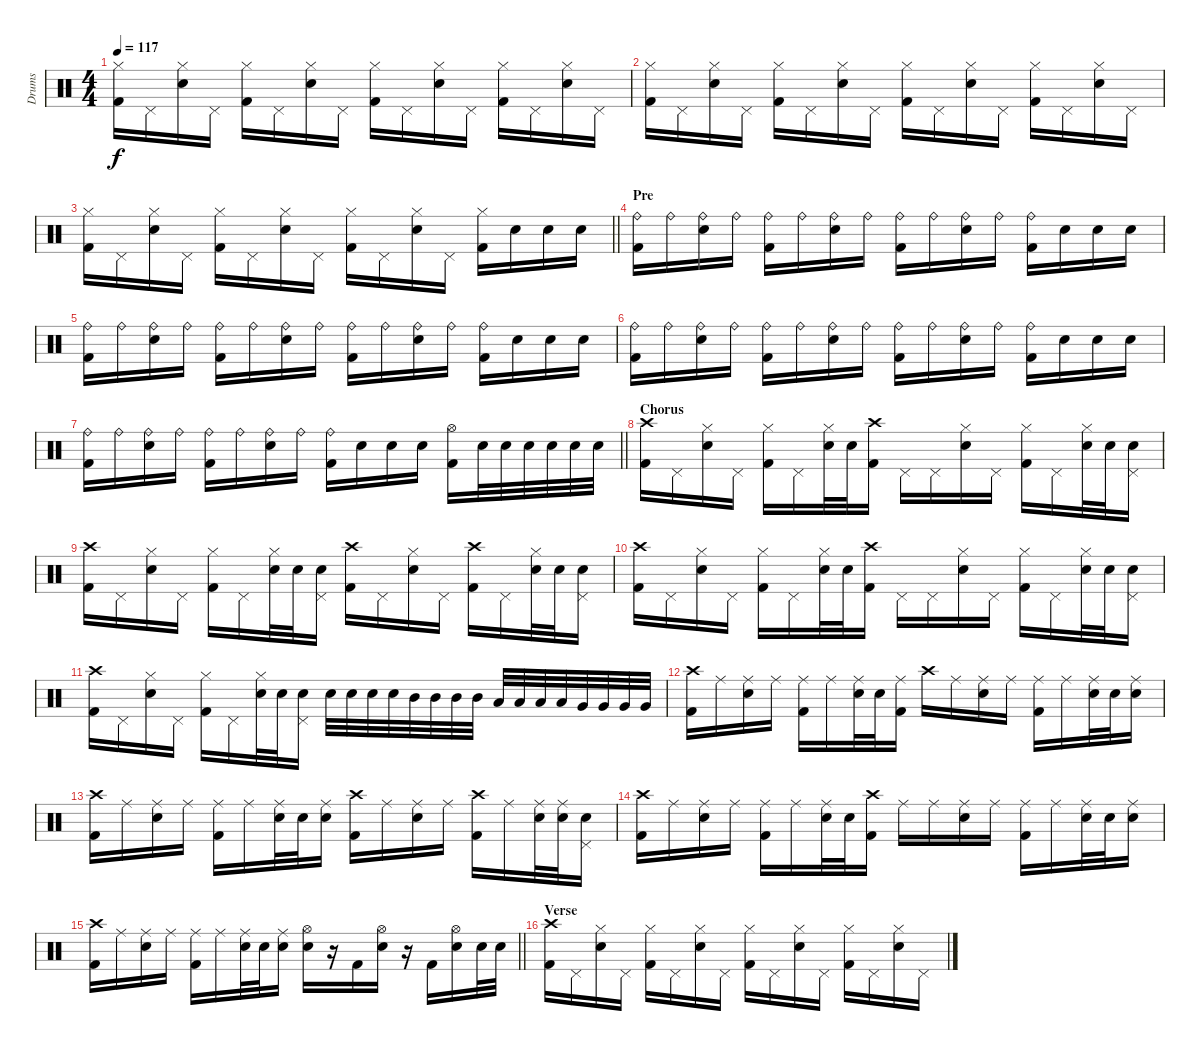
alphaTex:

\track ("Drums" "Drums") {instrument percussion}
\staff {score}
\articulation defaults
\ts (4 4)
\tempo 117
\clef neutral
\ks c
("Hi-Hat (closed)" "Kick (hit) 2").16{dy f} "Pedal Hi-Hat (hit)".16 ("Hi-Hat (closed)" "Electric Snare (hit)").16 "Pedal Hi-Hat (hit)".16 ("Hi-Hat (closed)" "Kick (hit) 2").16 "Pedal Hi-Hat (hit)".16 ("Hi-Hat (closed)" "Electric Snare (hit)").16 "Pedal Hi-Hat (hit)".16 ("Hi-Hat (closed)" "Kick (hit) 2").16 "Pedal Hi-Hat (hit)".16 ("Hi-Hat (closed)" "Electric Snare (hit)").16 "Pedal Hi-Hat (hit)".16 ("Hi-Hat (closed)" "Kick (hit) 2").16 "Pedal Hi-Hat (hit)".16 ("Hi-Hat (closed)" "Electric Snare (hit)").16 "Pedal Hi-Hat (hit)".16 |
("Hi-Hat (closed)" "Kick (hit) 2").16 "Pedal Hi-Hat (hit)".16 ("Hi-Hat (closed)" "Electric Snare (hit)").16 "Pedal Hi-Hat (hit)".16 ("Hi-Hat (closed)" "Kick (hit) 2").16 "Pedal Hi-Hat (hit)".16 ("Hi-Hat (closed)" "Electric Snare (hit)").16 "Pedal Hi-Hat (hit)".16 ("Hi-Hat (closed)" "Kick (hit) 2").16 "Pedal Hi-Hat (hit)".16 ("Hi-Hat (closed)" "Electric Snare (hit)").16 "Pedal Hi-Hat (hit)".16 ("Hi-Hat (closed)" "Kick (hit) 2").16 "Pedal Hi-Hat (hit)".16 ("Hi-Hat (closed)" "Electric Snare (hit)").16 "Pedal Hi-Hat (hit)".16 |
\barLineRight lightlight
("Hi-Hat (closed)" "Kick (hit) 2").16 "Pedal Hi-Hat (hit)".16 ("Hi-Hat (closed)" "Electric Snare (hit)").16 "Pedal Hi-Hat (hit)".16 ("Hi-Hat (closed)" "Kick (hit) 2").16 "Pedal Hi-Hat (hit)".16 ("Hi-Hat (closed)" "Electric Snare (hit)").16 "Pedal Hi-Hat (hit)".16 ("Hi-Hat (closed)" "Kick (hit) 2").16 "Pedal Hi-Hat (hit)".16 ("Hi-Hat (closed)" "Electric Snare (hit)").16 "Pedal Hi-Hat (hit)".16 ("Hi-Hat (closed)" "Kick (hit) 2").16 "Electric Snare (hit)".16 "Electric Snare (hit)".16 "Electric Snare (hit)".16 |
\section ("" "Pre")
("Ride (bell)" "Kick (hit) 2").16 "Ride (bell)".16 ("Ride (bell)" "Electric Snare (hit)").16 "Ride (bell)".16 ("Ride (bell)" "Kick (hit) 2").16 "Ride (bell)".16 ("Ride (bell)" "Electric Snare (hit)").16 "Ride (bell)".16 ("Ride (bell)" "Kick (hit) 2").16 "Ride (bell)".16 ("Ride (bell)" "Electric Snare (hit)").16 "Ride (bell)".16 ("Ride (bell)" "Kick (hit) 2").16 "Electric Snare (hit)".16 "Electric Snare (hit)".16 "Electric Snare (hit)".16 |
("Ride (bell)" "Kick (hit) 2").16 "Ride (bell)".16 ("Ride (bell)" "Electric Snare (hit)").16 "Ride (bell)".16 ("Ride (bell)" "Kick (hit) 2").16 "Ride (bell)".16 ("Ride (bell)" "Electric Snare (hit)").16 "Ride (bell)".16 ("Ride (bell)" "Kick (hit) 2").16 "Ride (bell)".16 ("Ride (bell)" "Electric Snare (hit)").16 "Ride (bell)".16 ("Ride (bell)" "Kick (hit) 2").16 "Electric Snare (hit)".16 "Electric Snare (hit)".16 "Electric Snare (hit)".16 |
("Ride (bell)" "Kick (hit) 2").16 "Ride (bell)".16 ("Ride (bell)" "Electric Snare (hit)").16 "Ride (bell)".16 ("Ride (bell)" "Kick (hit) 2").16 "Ride (bell)".16 ("Ride (bell)" "Electric Snare (hit)").16 "Ride (bell)".16 ("Ride (bell)" "Kick (hit) 2").16 "Ride (bell)".16 ("Ride (bell)" "Electric Snare (hit)").16 "Ride (bell)".16 ("Ride (bell)" "Kick (hit) 2").16 "Electric Snare (hit)".16 "Electric Snare (hit)".16 "Electric Snare (hit)".16 |
\barLineRight lightlight
("Ride (bell)" "Kick (hit) 2").16 "Ride (bell)".16 ("Ride (bell)" "Electric Snare (hit)").16 "Ride (bell)".16 ("Ride (bell)" "Kick (hit) 2").16 "Ride (bell)".16 ("Ride (bell)" "Electric Snare (hit)").16 "Ride (bell)".16 ("Ride (bell)" "Kick (hit) 2").16 "Electric Snare (hit)".16 "Electric Snare (hit)".16 "Electric Snare (hit)".16 ("Hi-Hat (open)" "Kick (hit) 2").16 "Electric Snare (hit)".32 "Electric Snare (hit)".32 "Electric Snare (hit)".32 "Electric Snare (hit)".32 "Electric Snare (hit)".32 "Electric Snare (hit)".32 |
\section ("" "Chorus")
("Crash high (hit)" "Kick (hit) 2").16 "Pedal Hi-Hat (hit)".16 ("Hi-Hat (closed)" "Electric Snare (hit)").16 "Pedal Hi-Hat (hit)".16 ("Hi-Hat (closed)" "Kick (hit) 2").16 "Pedal Hi-Hat (hit)".16 ("Hi-Hat (closed)" "Electric Snare (hit)").32 "Electric Snare (hit)".32 ("Crash high (hit)" "Kick (hit) 2").16 "Pedal Hi-Hat (hit)".16 "Pedal Hi-Hat (hit)".16 ("Hi-Hat (closed)" "Electric Snare (hit)").16 "Pedal Hi-Hat (hit)".16 ("Hi-Hat (closed)" "Kick (hit) 2").16 "Pedal Hi-Hat (hit)".16 ("Hi-Hat (closed)" "Electric Snare (hit)").32 "Electric Snare (hit)".32 ("Pedal Hi-Hat (hit)" "Electric Snare (hit)").16 |
("Crash high (hit)" "Kick (hit) 2").16 "Pedal Hi-Hat (hit)".16 ("Hi-Hat (closed)" "Electric Snare (hit)").16 "Pedal Hi-Hat (hit)".16 ("Hi-Hat (closed)" "Kick (hit) 2").16 "Pedal Hi-Hat (hit)".16 ("Hi-Hat (closed)" "Electric Snare (hit)").32 "Electric Snare (hit)".32 ("Pedal Hi-Hat (hit)" "Electric Snare (hit)").16 ("Crash high (hit)" "Kick (hit) 2").16 "Pedal Hi-Hat (hit)".16 ("Hi-Hat (closed)" "Electric Snare (hit)").16 "Pedal Hi-Hat (hit)".16 ("Crash high (hit)" "Kick (hit) 2").16 "Pedal Hi-Hat (hit)".16 ("Hi-Hat (closed)" "Electric Snare (hit)").32 "Electric Snare (hit)".32 ("Pedal Hi-Hat (hit)" "Electric Snare (hit)").16 |
("Crash high (hit)" "Kick (hit) 2").16 "Pedal Hi-Hat (hit)".16 ("Hi-Hat (closed)" "Electric Snare (hit)").16 "Pedal Hi-Hat (hit)".16 ("Hi-Hat (closed)" "Kick (hit) 2").16 "Pedal Hi-Hat (hit)".16 ("Hi-Hat (closed)" "Electric Snare (hit)").32 "Electric Snare (hit)".32 ("Crash high (hit)" "Kick (hit) 2").16 "Pedal Hi-Hat (hit)".16 "Pedal Hi-Hat (hit)".16 ("Hi-Hat (closed)" "Electric Snare (hit)").16 "Pedal Hi-Hat (hit)".16 ("Hi-Hat (closed)" "Kick (hit) 2").16 "Pedal Hi-Hat (hit)".16 ("Hi-Hat (closed)" "Electric Snare (hit)").32 "Electric Snare (hit)".32 ("Pedal Hi-Hat (hit)" "Electric Snare (hit)").16 |
("Crash high (hit)" "Kick (hit) 2").16 "Pedal Hi-Hat (hit)".16 ("Hi-Hat (closed)" "Electric Snare (hit)").16 "Pedal Hi-Hat (hit)".16 ("Hi-Hat (closed)" "Kick (hit) 2").16 "Pedal Hi-Hat (hit)".16 ("Hi-Hat (closed)" "Electric Snare (hit)").32 "Electric Snare (hit)".32 ("Pedal Hi-Hat (hit)" "Electric Snare (hit)").16 "Electric Snare (hit)".32 "Electric Snare (hit)".32 "Electric Snare (hit)".32 "Electric Snare (hit)".32 "Mid Tom (hit)".32 "Mid Tom (hit)".32 "Mid Tom (hit)".32 "Mid Tom (hit)".32 "Low Tom (hit)".32 "Low Tom (hit)".32 "Low Tom (hit)".32 "Low Tom (hit)".32 "Very Low Tom (hit)".32 "Very Low Tom (hit)".32 "Very Low Tom (hit)".32 "Very Low Tom (hit)".32 |
("Crash high (hit)" "Kick (hit) 2").16 "Ride (middle)".16 ("Ride (middle)" "Electric Snare (hit)").16 "Ride (middle)".16 ("Ride (middle)" "Kick (hit) 2").16 "Ride (middle)".16 ("Ride (middle)" "Electric Snare (hit)").32 "Electric Snare (hit)".32 ("Ride (middle)" "Kick (hit) 2").16 "Crash high (hit)".16 "Ride (middle)".16 ("Ride (middle)" "Electric Snare (hit)").16 "Ride (middle)".16 ("Ride (middle)" "Kick (hit) 2").16 "Ride (middle)".16 ("Ride (middle)" "Electric Snare (hit)").32 "Electric Snare (hit)".32 ("Ride (middle)" "Electric Snare (hit)").16 |
("Crash high (hit)" "Kick (hit) 2").16 "Ride (middle)".16 ("Ride (middle)" "Electric Snare (hit)").16 "Ride (middle)".16 ("Ride (middle)" "Kick (hit) 2").16 "Ride (middle)".16 ("Ride (middle)" "Electric Snare (hit)").32 "Electric Snare (hit)".32 ("Ride (middle)" "Electric Snare (hit)").16 ("Crash high (hit)" "Kick (hit) 2").16 "Ride (middle)".16 ("Ride (middle)" "Electric Snare (hit)").16 "Ride (middle)".16 ("Crash high (hit)" "Kick (hit) 2").16 "Ride (middle)".16 ("Ride (middle)" "Electric Snare (hit)").32 ("Ride (middle)" "Electric Snare (hit)").32 ("Pedal Hi-Hat (hit)" "Electric Snare (hit)").16 |
("Crash high (hit)" "Kick (hit) 2").16 "Ride (middle)".16 ("Ride (middle)" "Electric Snare (hit)").16 "Ride (middle)".16 ("Ride (middle)" "Kick (hit) 2").16 "Ride (middle)".16 ("Ride (middle)" "Electric Snare (hit)").32 "Electric Snare (hit)".32 ("Crash high (hit)" "Kick (hit) 2").16 "Ride (middle)".16 "Ride (middle)".16 ("Ride (middle)" "Electric Snare (hit)").16 "Ride (middle)".16 ("Ride (middle)" "Kick (hit) 2").16 "Ride (middle)".16 ("Ride (middle)" "Electric Snare (hit)").32 "Electric Snare (hit)".32 ("Ride (middle)" "Electric Snare (hit)").16 |
\barLineRight lightlight
("Crash high (hit)" "Kick (hit) 2").16 "Ride (middle)".16 ("Ride (middle)" "Electric Snare (hit)").16 "Ride (middle)".16 ("Ride (middle)" "Kick (hit) 2").16 "Ride (middle)".16 ("Ride (middle)" "Electric Snare (hit)").32 "Electric Snare (hit)".32 ("Ride (middle)" "Electric Snare (hit)").16 ("Hi-Hat (open)" "Electric Snare (hit)").16 r.16 "Kick (hit) 2".16 ("Hi-Hat (open)" "Electric Snare (hit)").16 r.16 "Kick (hit) 2".16 ("Hi-Hat (open)" "Electric Snare (hit)").16 "Electric Snare (hit)".32 "Electric Snare (hit)".32 |
\section ("" "Verse")
("Crash high (hit)" "Kick (hit) 2").16 "Pedal Hi-Hat (hit)".16 ("Hi-Hat (closed)" "Electric Snare (hit)").16 "Pedal Hi-Hat (hit)".16 ("Hi-Hat (closed)" "Kick (hit) 2").16 "Pedal Hi-Hat (hit)".16 ("Hi-Hat (closed)" "Electric Snare (hit)").16 "Pedal Hi-Hat (hit)".16 ("Hi-Hat (closed)" "Kick (hit) 2").16 "Pedal Hi-Hat (hit)".16 ("Hi-Hat (closed)" "Electric Snare (hit)").16 "Pedal Hi-Hat (hit)".16 ("Hi-Hat (closed)" "Kick (hit) 2").16 "Pedal Hi-Hat (hit)".16 ("Hi-Hat (closed)" "Electric Snare (hit)").16 "Pedal Hi-Hat (hit)".16
